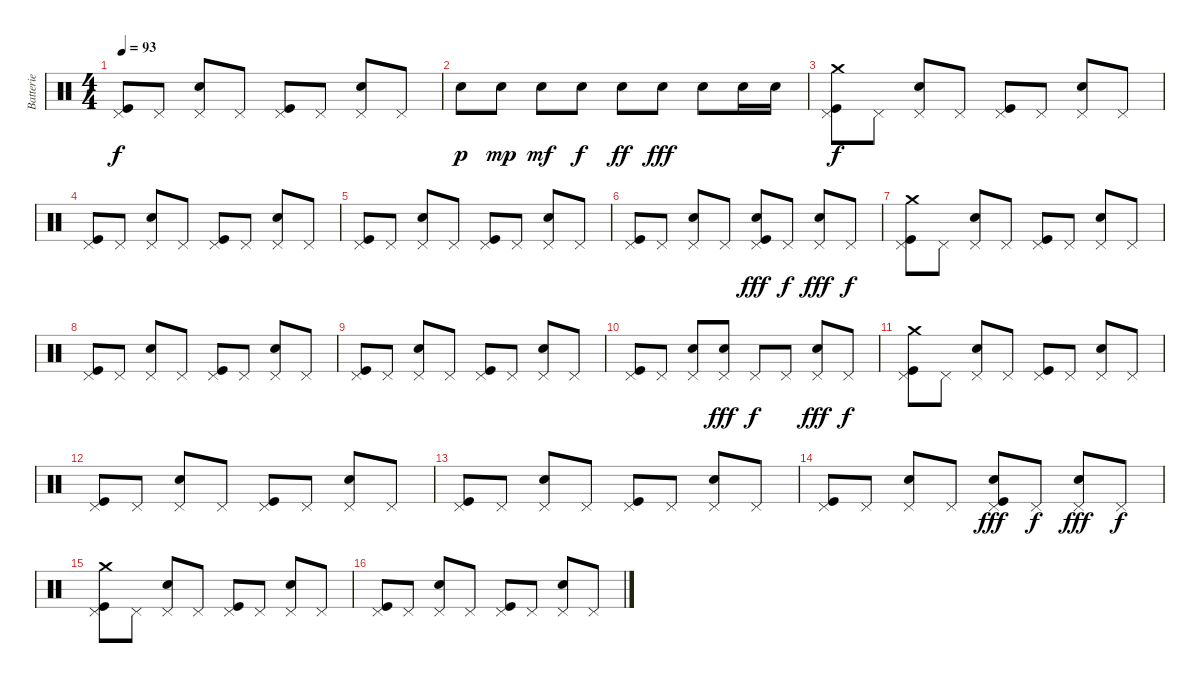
\track ("Batterie" "Batterie") {instrument percussion}
\staff {score}
\articulation defaults
\ts (4 4)
\tempo 93
\clef neutral
\ks c
("Kick (hit)" "Pedal Hi-Hat (hit)").8{dy f} "Pedal Hi-Hat (hit)".8 ("Snare (hit) 2" "Pedal Hi-Hat (hit)").8 "Pedal Hi-Hat (hit)".8 ("Kick (hit)" "Pedal Hi-Hat (hit)").8 "Pedal Hi-Hat (hit)".8 ("Snare (hit) 2" "Pedal Hi-Hat (hit)").8 "Pedal Hi-Hat (hit)".8 |
"Snare (hit) 2".8{dy p} "Snare (hit) 2".8{dy mp} "Snare (hit) 2".8{dy mf} "Snare (hit) 2".8{dy f} "Snare (hit) 2".8{dy ff} "Snare (hit) 2".8{dy fff} "Snare (hit) 2".8 "Snare (hit) 2".16 "Snare (hit) 2".16 |
("Crash medium (hit)" "Kick (hit)" "Pedal Hi-Hat (hit)").8{dy f} "Pedal Hi-Hat (hit)".8 ("Snare (hit) 2" "Pedal Hi-Hat (hit)").8 "Pedal Hi-Hat (hit)".8 ("Kick (hit)" "Pedal Hi-Hat (hit)").8 "Pedal Hi-Hat (hit)".8 ("Snare (hit) 2" "Pedal Hi-Hat (hit)").8 "Pedal Hi-Hat (hit)".8 |
("Kick (hit)" "Pedal Hi-Hat (hit)").8 "Pedal Hi-Hat (hit)".8 ("Snare (hit) 2" "Pedal Hi-Hat (hit)").8 "Pedal Hi-Hat (hit)".8 ("Kick (hit)" "Pedal Hi-Hat (hit)").8 "Pedal Hi-Hat (hit)".8 ("Snare (hit) 2" "Pedal Hi-Hat (hit)").8 "Pedal Hi-Hat (hit)".8 |
("Kick (hit)" "Pedal Hi-Hat (hit)").8 "Pedal Hi-Hat (hit)".8 ("Snare (hit) 2" "Pedal Hi-Hat (hit)").8 "Pedal Hi-Hat (hit)".8 ("Kick (hit)" "Pedal Hi-Hat (hit)").8 "Pedal Hi-Hat (hit)".8 ("Snare (hit) 2" "Pedal Hi-Hat (hit)").8 "Pedal Hi-Hat (hit)".8 |
("Kick (hit)" "Pedal Hi-Hat (hit)").8 "Pedal Hi-Hat (hit)".8 ("Snare (hit) 2" "Pedal Hi-Hat (hit)").8 "Pedal Hi-Hat (hit)".8 ("Snare (hit) 2" "Kick (hit)" "Pedal Hi-Hat (hit)").8{dy fff} "Pedal Hi-Hat (hit)".8{dy f} ("Snare (hit) 2" "Pedal Hi-Hat (hit)").8{dy fff} "Pedal Hi-Hat (hit)".8{dy f} |
("Crash medium (hit)" "Kick (hit)" "Pedal Hi-Hat (hit)").8 "Pedal Hi-Hat (hit)".8 ("Snare (hit) 2" "Pedal Hi-Hat (hit)").8 "Pedal Hi-Hat (hit)".8 ("Kick (hit)" "Pedal Hi-Hat (hit)").8 "Pedal Hi-Hat (hit)".8 ("Snare (hit) 2" "Pedal Hi-Hat (hit)").8 "Pedal Hi-Hat (hit)".8 |
("Kick (hit)" "Pedal Hi-Hat (hit)").8 "Pedal Hi-Hat (hit)".8 ("Snare (hit) 2" "Pedal Hi-Hat (hit)").8 "Pedal Hi-Hat (hit)".8 ("Kick (hit)" "Pedal Hi-Hat (hit)").8 "Pedal Hi-Hat (hit)".8 ("Snare (hit) 2" "Pedal Hi-Hat (hit)").8 "Pedal Hi-Hat (hit)".8 |
("Kick (hit)" "Pedal Hi-Hat (hit)").8 "Pedal Hi-Hat (hit)".8 ("Snare (hit) 2" "Pedal Hi-Hat (hit)").8 "Pedal Hi-Hat (hit)".8 ("Kick (hit)" "Pedal Hi-Hat (hit)").8 "Pedal Hi-Hat (hit)".8 ("Snare (hit) 2" "Pedal Hi-Hat (hit)").8 "Pedal Hi-Hat (hit)".8 |
("Kick (hit)" "Pedal Hi-Hat (hit)").8 "Pedal Hi-Hat (hit)".8 ("Snare (hit) 2" "Pedal Hi-Hat (hit)").8 ("Snare (hit) 2" "Pedal Hi-Hat (hit)").8{dy fff} "Pedal Hi-Hat (hit)".8{dy f} "Pedal Hi-Hat (hit)".8 ("Snare (hit) 2" "Pedal Hi-Hat (hit)").8{dy fff} "Pedal Hi-Hat (hit)".8{dy f} |
("Crash medium (hit)" "Kick (hit)" "Pedal Hi-Hat (hit)").8 "Pedal Hi-Hat (hit)".8 ("Snare (hit) 2" "Pedal Hi-Hat (hit)").8 "Pedal Hi-Hat (hit)".8 ("Kick (hit)" "Pedal Hi-Hat (hit)").8 "Pedal Hi-Hat (hit)".8 ("Snare (hit) 2" "Pedal Hi-Hat (hit)").8 "Pedal Hi-Hat (hit)".8 |
("Kick (hit)" "Pedal Hi-Hat (hit)").8 "Pedal Hi-Hat (hit)".8 ("Snare (hit) 2" "Pedal Hi-Hat (hit)").8 "Pedal Hi-Hat (hit)".8 ("Kick (hit)" "Pedal Hi-Hat (hit)").8 "Pedal Hi-Hat (hit)".8 ("Snare (hit) 2" "Pedal Hi-Hat (hit)").8 "Pedal Hi-Hat (hit)".8 |
("Kick (hit)" "Pedal Hi-Hat (hit)").8 "Pedal Hi-Hat (hit)".8 ("Snare (hit) 2" "Pedal Hi-Hat (hit)").8 "Pedal Hi-Hat (hit)".8 ("Kick (hit)" "Pedal Hi-Hat (hit)").8 "Pedal Hi-Hat (hit)".8 ("Snare (hit) 2" "Pedal Hi-Hat (hit)").8 "Pedal Hi-Hat (hit)".8 |
("Kick (hit)" "Pedal Hi-Hat (hit)").8 "Pedal Hi-Hat (hit)".8 ("Snare (hit) 2" "Pedal Hi-Hat (hit)").8 "Pedal Hi-Hat (hit)".8 ("Snare (hit) 2" "Kick (hit)" "Pedal Hi-Hat (hit)").8{dy fff} "Pedal Hi-Hat (hit)".8{dy f} ("Snare (hit) 2" "Pedal Hi-Hat (hit)").8{dy fff} "Pedal Hi-Hat (hit)".8{dy f} |
("Crash medium (hit)" "Kick (hit)" "Pedal Hi-Hat (hit)").8 "Pedal Hi-Hat (hit)".8 ("Snare (hit) 2" "Pedal Hi-Hat (hit)").8 "Pedal Hi-Hat (hit)".8 ("Kick (hit)" "Pedal Hi-Hat (hit)").8 "Pedal Hi-Hat (hit)".8 ("Snare (hit) 2" "Pedal Hi-Hat (hit)").8 "Pedal Hi-Hat (hit)".8 |
("Kick (hit)" "Pedal Hi-Hat (hit)").8 "Pedal Hi-Hat (hit)".8 ("Snare (hit) 2" "Pedal Hi-Hat (hit)").8 "Pedal Hi-Hat (hit)".8 ("Kick (hit)" "Pedal Hi-Hat (hit)").8 "Pedal Hi-Hat (hit)".8 ("Snare (hit) 2" "Pedal Hi-Hat (hit)").8 "Pedal Hi-Hat (hit)".8
